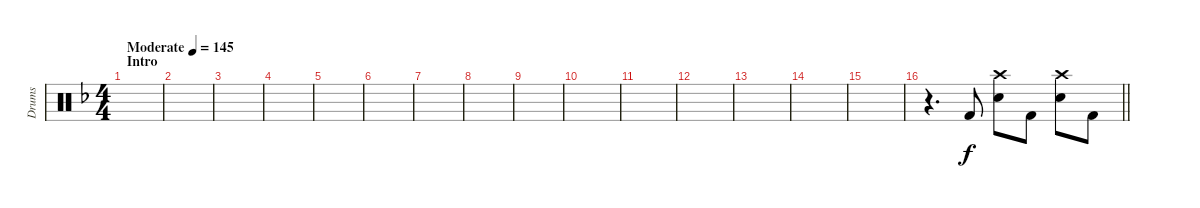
\track ("Drums" "Drums") {instrument percussion}
\staff {score}
\articulation defaults
\ts (4 4)
\section ("" "Intro")
\tempo (145 "Moderate")
\clef neutral
\ks f
|
|
|
|
|
|
|
|
|
|
|
|
|
|
|
\barLineRight lightlight
r.4{d} "Kick (hit) 2".8 ("Snare (hit) 2" "Crash high (hit)").8 "Kick (hit) 2".8 ("Snare (hit) 2" "Crash high (hit)").8 "Kick (hit) 2".8
